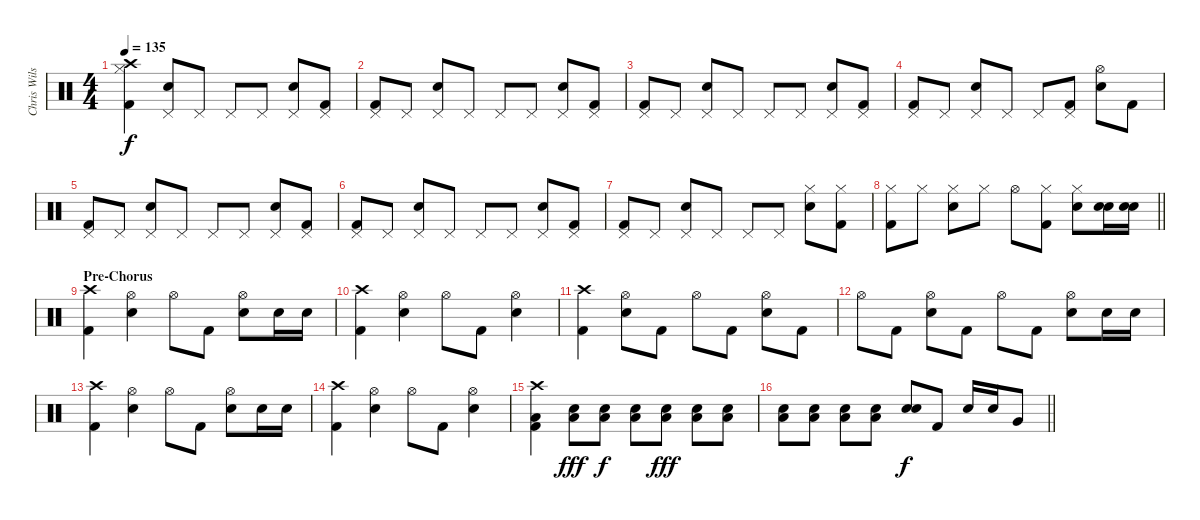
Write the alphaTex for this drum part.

\track ("Chris Wilson - Drums" "Chris Wils") {instrument percussion}
\staff {score}
\articulation defaults
\ts (4 4)
\tempo 135
\clef neutral
\ks c
("Crash high (hit)" "Hi-Hat (closed)" "Kick (hit) 2").4{dy f} ("Pedal Hi-Hat (hit)" "Snare (hit) 2").8 "Pedal Hi-Hat (hit)".8 "Pedal Hi-Hat (hit)".8 "Pedal Hi-Hat (hit)".8 ("Pedal Hi-Hat (hit)" "Snare (hit) 2").8 ("Pedal Hi-Hat (hit)" "Kick (hit) 2").8 |
("Pedal Hi-Hat (hit)" "Kick (hit) 2").8 "Pedal Hi-Hat (hit)".8 ("Pedal Hi-Hat (hit)" "Snare (hit) 2").8 "Pedal Hi-Hat (hit)".8 "Pedal Hi-Hat (hit)".8 "Pedal Hi-Hat (hit)".8 ("Pedal Hi-Hat (hit)" "Snare (hit) 2").8 ("Pedal Hi-Hat (hit)" "Kick (hit) 2").8 |
("Pedal Hi-Hat (hit)" "Kick (hit) 2").8 "Pedal Hi-Hat (hit)".8 ("Pedal Hi-Hat (hit)" "Snare (hit) 2").8 "Pedal Hi-Hat (hit)".8 "Pedal Hi-Hat (hit)".8 "Pedal Hi-Hat (hit)".8 ("Pedal Hi-Hat (hit)" "Snare (hit) 2").8 ("Pedal Hi-Hat (hit)" "Kick (hit) 2").8 |
("Pedal Hi-Hat (hit)" "Kick (hit) 2").8 "Pedal Hi-Hat (hit)".8 ("Pedal Hi-Hat (hit)" "Snare (hit) 2").8 "Pedal Hi-Hat (hit)".8 "Pedal Hi-Hat (hit)".8 ("Pedal Hi-Hat (hit)" "Kick (hit) 2").8 ("Hi-Hat (open)" "Snare (hit) 2").8 "Kick (hit) 2".8 |
("Pedal Hi-Hat (hit)" "Kick (hit) 2").8 "Pedal Hi-Hat (hit)".8 ("Pedal Hi-Hat (hit)" "Snare (hit) 2").8 "Pedal Hi-Hat (hit)".8 "Pedal Hi-Hat (hit)".8 "Pedal Hi-Hat (hit)".8 ("Pedal Hi-Hat (hit)" "Snare (hit) 2").8 ("Pedal Hi-Hat (hit)" "Kick (hit) 2").8 |
("Pedal Hi-Hat (hit)" "Kick (hit) 2").8 "Pedal Hi-Hat (hit)".8 ("Pedal Hi-Hat (hit)" "Snare (hit) 2").8 "Pedal Hi-Hat (hit)".8 "Pedal Hi-Hat (hit)".8 "Pedal Hi-Hat (hit)".8 ("Pedal Hi-Hat (hit)" "Snare (hit) 2").8 ("Pedal Hi-Hat (hit)" "Kick (hit) 2").8 |
("Pedal Hi-Hat (hit)" "Kick (hit) 2").8 "Pedal Hi-Hat (hit)".8 ("Pedal Hi-Hat (hit)" "Snare (hit) 2").8 "Pedal Hi-Hat (hit)".8 "Pedal Hi-Hat (hit)".8 "Pedal Hi-Hat (hit)".8 ("Hi-Hat (closed)" "Snare (hit) 2").8 ("Hi-Hat (closed)" "Kick (hit) 2").8 |
\barLineRight lightlight
("Hi-Hat (closed)" "Kick (hit) 2").8 "Hi-Hat (closed)".8 ("Hi-Hat (closed)" "Snare (hit) 2").8 "Hi-Hat (closed)".8 "Hi-Hat (open)".8 ("Hi-Hat (closed)" "Kick (hit) 2").8 ("Hi-Hat (closed)" "Snare (hit) 2").8 ("Snare (hit) 2" "Snare (hit) 2").16 ("Snare (hit) 2" "Snare (hit) 2").16 |
\section ("" "Pre-Chorus")
("Crash high (hit)" "Kick (hit) 2").4 ("Hi-Hat (open)" "Snare (hit) 2").4 "Hi-Hat (open)".8 "Kick (hit) 2".8 ("Hi-Hat (open)" "Snare (hit) 2").8 "Snare (hit) 2".16 "Snare (hit) 2".16 |
("Crash high (hit)" "Kick (hit) 2").4 ("Hi-Hat (open)" "Snare (hit) 2").4 "Hi-Hat (open)".8 "Kick (hit) 2".8 ("Hi-Hat (open)" "Snare (hit) 2").4 |
("Crash high (hit)" "Kick (hit) 2").4 ("Hi-Hat (open)" "Snare (hit) 2").8 "Kick (hit) 2".8 "Hi-Hat (open)".8 "Kick (hit) 2".8 ("Hi-Hat (open)" "Snare (hit) 2").8 "Kick (hit) 2".8 |
"Hi-Hat (open)".8 "Kick (hit) 2".8 ("Hi-Hat (open)" "Snare (hit) 2").8 "Kick (hit) 2".8 "Hi-Hat (open)".8 "Kick (hit) 2".8 ("Hi-Hat (open)" "Snare (hit) 2").8 "Snare (hit) 2".16 "Snare (hit) 2".16 |
("Crash high (hit)" "Kick (hit) 2").4 ("Hi-Hat (open)" "Snare (hit) 2").4 "Hi-Hat (open)".8 "Kick (hit) 2".8 ("Hi-Hat (open)" "Snare (hit) 2").8 "Snare (hit) 2".16 "Snare (hit) 2".16 |
("Crash high (hit)" "Kick (hit) 2").4 ("Hi-Hat (open)" "Snare (hit) 2").4 "Hi-Hat (open)".8 "Kick (hit) 2".8 ("Hi-Hat (open)" "Snare (hit) 2").4 |
("Crash high (hit)" "Low Floor Tom (hit)" "Kick (hit) 2").4 ("Snare (hit) 2" "Low Floor Tom (hit)").8{dy fff} ("Snare (hit) 2" "Low Floor Tom (hit)").8{dy f} ("Snare (hit) 2" "Low Floor Tom (hit)").8 ("Snare (hit) 2" "Low Floor Tom (hit)").8{dy fff} ("Snare (hit) 2" "Low Floor Tom (hit)").8 ("Snare (hit) 2" "Low Floor Tom (hit)").8 |
\barLineRight lightlight
("Snare (hit) 2" "Low Floor Tom (hit)").8 ("Snare (hit) 2" "Low Floor Tom (hit)").8 ("Snare (hit) 2" "Low Floor Tom (hit)").8 ("Snare (hit) 2" "Low Floor Tom (hit)").8 ("Snare (hit) 2" "Snare (hit) 2").8{dy f} "Kick (hit) 2".8 "Snare (hit) 2".16 "Snare (hit) 2".16 "Very Low Tom (hit)".8
